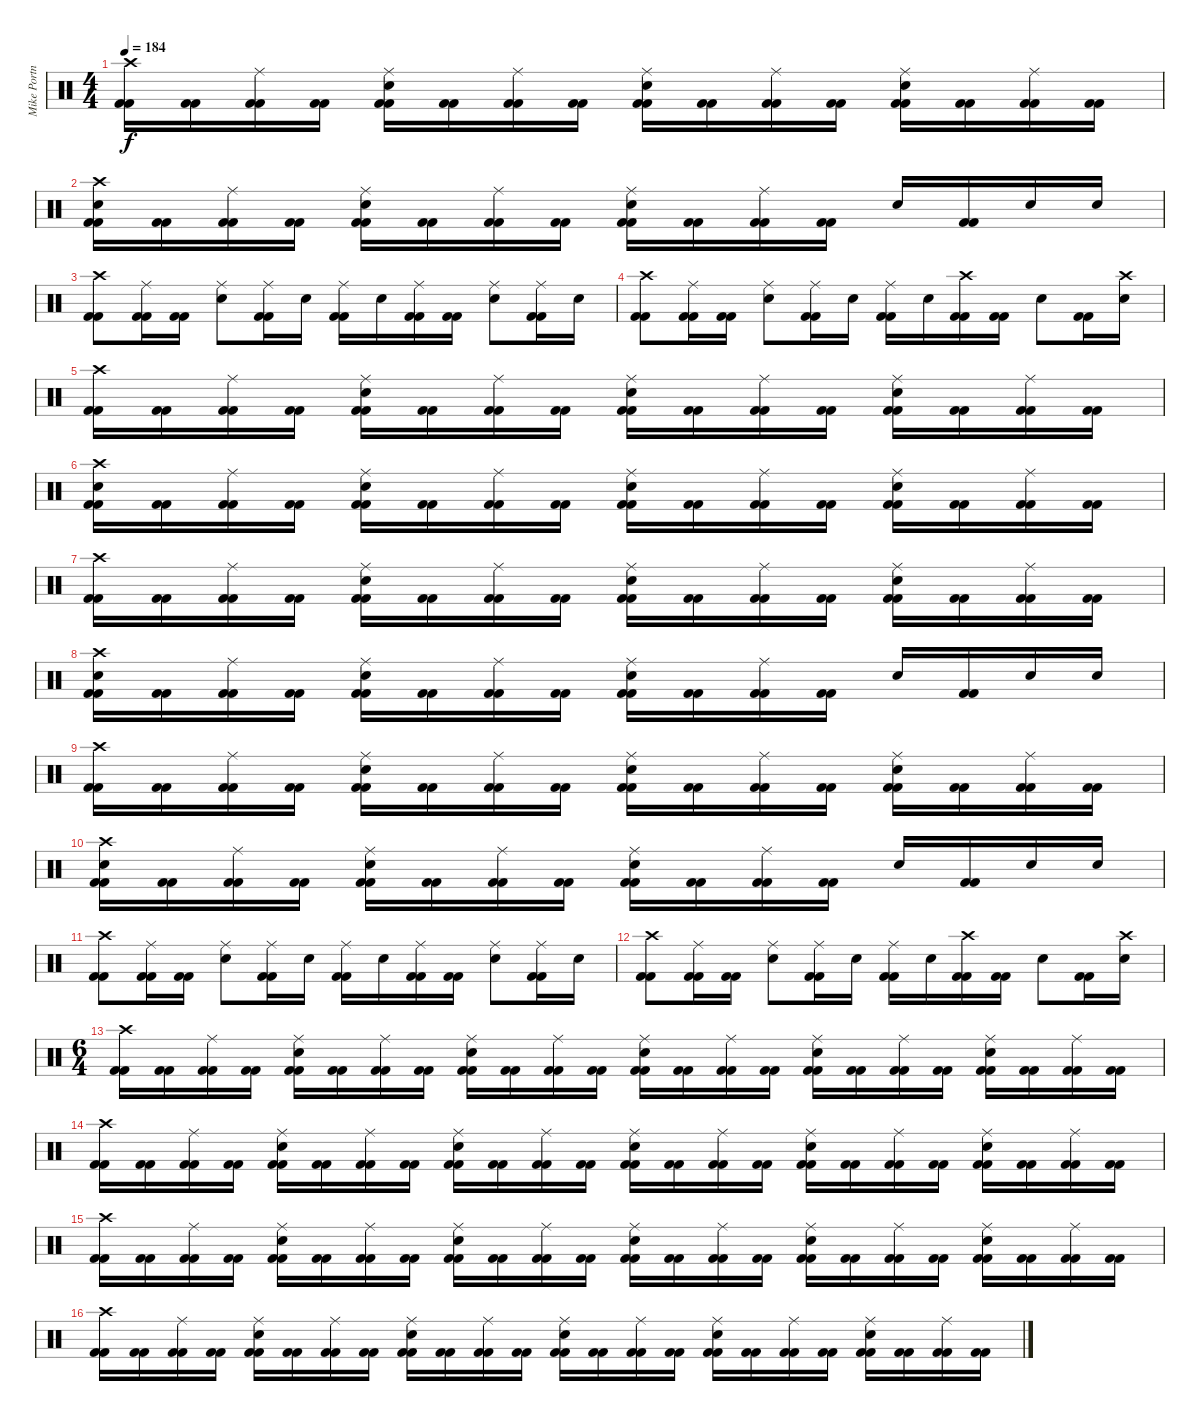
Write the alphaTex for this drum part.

\track ("Mike Portnoy - Drum" "Mike Portn") {instrument percussion}
\staff {score}
\articulation defaults
\ts (4 4)
\tempo 184
\clef neutral
\ks c
("Crash high (hit)" "Kick (hit) 2" "Kick (hit) 2").16{dy f} ("Kick (hit) 2" "Kick (hit) 2").16 ("Ride (middle)" "Kick (hit) 2" "Kick (hit) 2").16 ("Kick (hit) 2" "Kick (hit) 2").16 ("Ride (middle)" "Snare (hit) 2" "Kick (hit) 2" "Kick (hit) 2").16 ("Kick (hit) 2" "Kick (hit) 2").16 ("Ride (middle)" "Kick (hit) 2" "Kick (hit) 2").16 ("Kick (hit) 2" "Kick (hit) 2").16 ("Ride (middle)" "Snare (hit) 2" "Kick (hit) 2" "Kick (hit) 2").16 ("Kick (hit) 2" "Kick (hit) 2").16 ("Ride (middle)" "Kick (hit) 2" "Kick (hit) 2").16 ("Kick (hit) 2" "Kick (hit) 2").16 ("Ride (middle)" "Snare (hit) 2" "Kick (hit) 2" "Kick (hit) 2").16 ("Kick (hit) 2" "Kick (hit) 2").16 ("Ride (middle)" "Kick (hit) 2" "Kick (hit) 2").16 ("Kick (hit) 2" "Kick (hit) 2").16 |
("Crash high (hit)" "Snare (hit) 2" "Kick (hit) 2" "Kick (hit) 2").16 ("Kick (hit) 2" "Kick (hit) 2").16 ("Ride (middle)" "Kick (hit) 2" "Kick (hit) 2").16 ("Kick (hit) 2" "Kick (hit) 2").16 ("Ride (middle)" "Snare (hit) 2" "Kick (hit) 2" "Kick (hit) 2").16 ("Kick (hit) 2" "Kick (hit) 2").16 ("Ride (middle)" "Kick (hit) 2" "Kick (hit) 2").16 ("Kick (hit) 2" "Kick (hit) 2").16 ("Ride (middle)" "Snare (hit) 2" "Kick (hit) 2" "Kick (hit) 2").16 ("Kick (hit) 2" "Kick (hit) 2").16 ("Ride (middle)" "Kick (hit) 2" "Kick (hit) 2").16 ("Kick (hit) 2" "Kick (hit) 2").16 "Snare (hit) 2".16 ("Kick (hit) 2" "Kick (hit) 2").16 "Snare (hit) 2".16 "Snare (hit) 2".16 |
("Crash high (hit)" "Kick (hit) 2" "Kick (hit) 2").8 ("Ride (middle)" "Kick (hit) 2" "Kick (hit) 2").16 ("Kick (hit) 2" "Kick (hit) 2").16 ("Ride (middle)" "Snare (hit) 2").8 ("Ride (middle)" "Kick (hit) 2" "Kick (hit) 2").16 "Snare (hit) 2".16 ("Ride (middle)" "Kick (hit) 2" "Kick (hit) 2").16 "Snare (hit) 2".16 ("Ride (middle)" "Kick (hit) 2" "Kick (hit) 2").16 ("Kick (hit) 2" "Kick (hit) 2").16 ("Ride (middle)" "Snare (hit) 2").8 ("Ride (middle)" "Kick (hit) 2" "Kick (hit) 2").16 "Snare (hit) 2".16 |
("Crash high (hit)" "Kick (hit) 2" "Kick (hit) 2").8 ("Ride (middle)" "Kick (hit) 2" "Kick (hit) 2").16 ("Kick (hit) 2" "Kick (hit) 2").16 ("Ride (middle)" "Snare (hit) 2").8 ("Ride (middle)" "Kick (hit) 2" "Kick (hit) 2").16 "Snare (hit) 2".16 ("Ride (middle)" "Kick (hit) 2" "Kick (hit) 2").16 "Snare (hit) 2".16 ("Crash high (hit)" "Kick (hit) 2" "Kick (hit) 2").16 ("Kick (hit) 2" "Kick (hit) 2").16 "Snare (hit) 2".8 ("Kick (hit) 2" "Kick (hit) 2").16 ("Crash high (hit)" "Snare (hit) 2").16 |
("Crash high (hit)" "Kick (hit) 2" "Kick (hit) 2").16 ("Kick (hit) 2" "Kick (hit) 2").16 ("Ride (middle)" "Kick (hit) 2" "Kick (hit) 2").16 ("Kick (hit) 2" "Kick (hit) 2").16 ("Ride (middle)" "Snare (hit) 2" "Kick (hit) 2" "Kick (hit) 2").16 ("Kick (hit) 2" "Kick (hit) 2").16 ("Ride (middle)" "Kick (hit) 2" "Kick (hit) 2").16 ("Kick (hit) 2" "Kick (hit) 2").16 ("Ride (middle)" "Snare (hit) 2" "Kick (hit) 2" "Kick (hit) 2").16 ("Kick (hit) 2" "Kick (hit) 2").16 ("Ride (middle)" "Kick (hit) 2" "Kick (hit) 2").16 ("Kick (hit) 2" "Kick (hit) 2").16 ("Ride (middle)" "Snare (hit) 2" "Kick (hit) 2" "Kick (hit) 2").16 ("Kick (hit) 2" "Kick (hit) 2").16 ("Ride (middle)" "Kick (hit) 2" "Kick (hit) 2").16 ("Kick (hit) 2" "Kick (hit) 2").16 |
("Crash high (hit)" "Snare (hit) 2" "Kick (hit) 2" "Kick (hit) 2").16 ("Kick (hit) 2" "Kick (hit) 2").16 ("Ride (middle)" "Kick (hit) 2" "Kick (hit) 2").16 ("Kick (hit) 2" "Kick (hit) 2").16 ("Ride (middle)" "Snare (hit) 2" "Kick (hit) 2" "Kick (hit) 2").16 ("Kick (hit) 2" "Kick (hit) 2").16 ("Ride (middle)" "Kick (hit) 2" "Kick (hit) 2").16 ("Kick (hit) 2" "Kick (hit) 2").16 ("Ride (middle)" "Snare (hit) 2" "Kick (hit) 2" "Kick (hit) 2").16 ("Kick (hit) 2" "Kick (hit) 2").16 ("Ride (middle)" "Kick (hit) 2" "Kick (hit) 2").16 ("Kick (hit) 2" "Kick (hit) 2").16 ("Ride (middle)" "Snare (hit) 2" "Kick (hit) 2" "Kick (hit) 2").16 ("Kick (hit) 2" "Kick (hit) 2").16 ("Ride (middle)" "Kick (hit) 2" "Kick (hit) 2").16 ("Kick (hit) 2" "Kick (hit) 2").16 |
("Crash high (hit)" "Kick (hit) 2" "Kick (hit) 2").16 ("Kick (hit) 2" "Kick (hit) 2").16 ("Ride (middle)" "Kick (hit) 2" "Kick (hit) 2").16 ("Kick (hit) 2" "Kick (hit) 2").16 ("Ride (middle)" "Snare (hit) 2" "Kick (hit) 2" "Kick (hit) 2").16 ("Kick (hit) 2" "Kick (hit) 2").16 ("Ride (middle)" "Kick (hit) 2" "Kick (hit) 2").16 ("Kick (hit) 2" "Kick (hit) 2").16 ("Ride (middle)" "Snare (hit) 2" "Kick (hit) 2" "Kick (hit) 2").16 ("Kick (hit) 2" "Kick (hit) 2").16 ("Ride (middle)" "Kick (hit) 2" "Kick (hit) 2").16 ("Kick (hit) 2" "Kick (hit) 2").16 ("Ride (middle)" "Snare (hit) 2" "Kick (hit) 2" "Kick (hit) 2").16 ("Kick (hit) 2" "Kick (hit) 2").16 ("Ride (middle)" "Kick (hit) 2" "Kick (hit) 2").16 ("Kick (hit) 2" "Kick (hit) 2").16 |
("Crash high (hit)" "Snare (hit) 2" "Kick (hit) 2" "Kick (hit) 2").16 ("Kick (hit) 2" "Kick (hit) 2").16 ("Ride (middle)" "Kick (hit) 2" "Kick (hit) 2").16 ("Kick (hit) 2" "Kick (hit) 2").16 ("Ride (middle)" "Snare (hit) 2" "Kick (hit) 2" "Kick (hit) 2").16 ("Kick (hit) 2" "Kick (hit) 2").16 ("Ride (middle)" "Kick (hit) 2" "Kick (hit) 2").16 ("Kick (hit) 2" "Kick (hit) 2").16 ("Ride (middle)" "Snare (hit) 2" "Kick (hit) 2" "Kick (hit) 2").16 ("Kick (hit) 2" "Kick (hit) 2").16 ("Ride (middle)" "Kick (hit) 2" "Kick (hit) 2").16 ("Kick (hit) 2" "Kick (hit) 2").16 "Snare (hit) 2".16 ("Kick (hit) 2" "Kick (hit) 2").16 "Snare (hit) 2".16 "Snare (hit) 2".16 |
("Crash high (hit)" "Kick (hit) 2" "Kick (hit) 2").16 ("Kick (hit) 2" "Kick (hit) 2").16 ("Ride (middle)" "Kick (hit) 2" "Kick (hit) 2").16 ("Kick (hit) 2" "Kick (hit) 2").16 ("Ride (middle)" "Snare (hit) 2" "Kick (hit) 2" "Kick (hit) 2").16 ("Kick (hit) 2" "Kick (hit) 2").16 ("Ride (middle)" "Kick (hit) 2" "Kick (hit) 2").16 ("Kick (hit) 2" "Kick (hit) 2").16 ("Ride (middle)" "Snare (hit) 2" "Kick (hit) 2" "Kick (hit) 2").16 ("Kick (hit) 2" "Kick (hit) 2").16 ("Ride (middle)" "Kick (hit) 2" "Kick (hit) 2").16 ("Kick (hit) 2" "Kick (hit) 2").16 ("Ride (middle)" "Snare (hit) 2" "Kick (hit) 2" "Kick (hit) 2").16 ("Kick (hit) 2" "Kick (hit) 2").16 ("Ride (middle)" "Kick (hit) 2" "Kick (hit) 2").16 ("Kick (hit) 2" "Kick (hit) 2").16 |
("Crash high (hit)" "Snare (hit) 2" "Kick (hit) 2" "Kick (hit) 2").16 ("Kick (hit) 2" "Kick (hit) 2").16 ("Ride (middle)" "Kick (hit) 2" "Kick (hit) 2").16 ("Kick (hit) 2" "Kick (hit) 2").16 ("Ride (middle)" "Snare (hit) 2" "Kick (hit) 2" "Kick (hit) 2").16 ("Kick (hit) 2" "Kick (hit) 2").16 ("Ride (middle)" "Kick (hit) 2" "Kick (hit) 2").16 ("Kick (hit) 2" "Kick (hit) 2").16 ("Ride (middle)" "Snare (hit) 2" "Kick (hit) 2" "Kick (hit) 2").16 ("Kick (hit) 2" "Kick (hit) 2").16 ("Ride (middle)" "Kick (hit) 2" "Kick (hit) 2").16 ("Kick (hit) 2" "Kick (hit) 2").16 "Snare (hit) 2".16 ("Kick (hit) 2" "Kick (hit) 2").16 "Snare (hit) 2".16 "Snare (hit) 2".16 |
("Crash high (hit)" "Kick (hit) 2" "Kick (hit) 2").8 ("Ride (middle)" "Kick (hit) 2" "Kick (hit) 2").16 ("Kick (hit) 2" "Kick (hit) 2").16 ("Ride (middle)" "Snare (hit) 2").8 ("Ride (middle)" "Kick (hit) 2" "Kick (hit) 2").16 "Snare (hit) 2".16 ("Ride (middle)" "Kick (hit) 2" "Kick (hit) 2").16 "Snare (hit) 2".16 ("Ride (middle)" "Kick (hit) 2" "Kick (hit) 2").16 ("Kick (hit) 2" "Kick (hit) 2").16 ("Ride (middle)" "Snare (hit) 2").8 ("Ride (middle)" "Kick (hit) 2" "Kick (hit) 2").16 "Snare (hit) 2".16 |
("Crash high (hit)" "Kick (hit) 2" "Kick (hit) 2").8 ("Ride (middle)" "Kick (hit) 2" "Kick (hit) 2").16 ("Kick (hit) 2" "Kick (hit) 2").16 ("Ride (middle)" "Snare (hit) 2").8 ("Ride (middle)" "Kick (hit) 2" "Kick (hit) 2").16 "Snare (hit) 2".16 ("Ride (middle)" "Kick (hit) 2" "Kick (hit) 2").16 "Snare (hit) 2".16 ("Crash high (hit)" "Kick (hit) 2" "Kick (hit) 2").16 ("Kick (hit) 2" "Kick (hit) 2").16 "Snare (hit) 2".8 ("Kick (hit) 2" "Kick (hit) 2").16 ("Crash high (hit)" "Snare (hit) 2").16 |
\ts (6 4)
("Crash high (hit)" "Kick (hit) 2" "Kick (hit) 2").16 ("Kick (hit) 2" "Kick (hit) 2").16 ("Ride (middle)" "Kick (hit) 2" "Kick (hit) 2").16 ("Kick (hit) 2" "Kick (hit) 2").16 ("Ride (middle)" "Snare (hit) 2" "Kick (hit) 2" "Kick (hit) 2").16 ("Kick (hit) 2" "Kick (hit) 2").16 ("Ride (middle)" "Kick (hit) 2" "Kick (hit) 2").16 ("Kick (hit) 2" "Kick (hit) 2").16 ("Ride (middle)" "Snare (hit) 2" "Kick (hit) 2" "Kick (hit) 2").16 ("Kick (hit) 2" "Kick (hit) 2").16 ("Ride (middle)" "Kick (hit) 2" "Kick (hit) 2").16 ("Kick (hit) 2" "Kick (hit) 2").16 ("Ride (middle)" "Snare (hit) 2" "Kick (hit) 2" "Kick (hit) 2").16 ("Kick (hit) 2" "Kick (hit) 2").16 ("Ride (middle)" "Kick (hit) 2" "Kick (hit) 2").16 ("Kick (hit) 2" "Kick (hit) 2").16 ("Ride (middle)" "Snare (hit) 2" "Kick (hit) 2" "Kick (hit) 2").16 ("Kick (hit) 2" "Kick (hit) 2").16 ("Ride (middle)" "Kick (hit) 2" "Kick (hit) 2").16 ("Kick (hit) 2" "Kick (hit) 2").16 ("Ride (middle)" "Snare (hit) 2" "Kick (hit) 2" "Kick (hit) 2").16 ("Kick (hit) 2" "Kick (hit) 2").16 ("Ride (middle)" "Kick (hit) 2" "Kick (hit) 2").16 ("Kick (hit) 2" "Kick (hit) 2").16 |
("Crash high (hit)" "Kick (hit) 2" "Kick (hit) 2").16 ("Kick (hit) 2" "Kick (hit) 2").16 ("Ride (middle)" "Kick (hit) 2" "Kick (hit) 2").16 ("Kick (hit) 2" "Kick (hit) 2").16 ("Ride (middle)" "Snare (hit) 2" "Kick (hit) 2" "Kick (hit) 2").16 ("Kick (hit) 2" "Kick (hit) 2").16 ("Ride (middle)" "Kick (hit) 2" "Kick (hit) 2").16 ("Kick (hit) 2" "Kick (hit) 2").16 ("Ride (middle)" "Snare (hit) 2" "Kick (hit) 2" "Kick (hit) 2").16 ("Kick (hit) 2" "Kick (hit) 2").16 ("Ride (middle)" "Kick (hit) 2" "Kick (hit) 2").16 ("Kick (hit) 2" "Kick (hit) 2").16 ("Ride (middle)" "Snare (hit) 2" "Kick (hit) 2" "Kick (hit) 2").16 ("Kick (hit) 2" "Kick (hit) 2").16 ("Ride (middle)" "Kick (hit) 2" "Kick (hit) 2").16 ("Kick (hit) 2" "Kick (hit) 2").16 ("Ride (middle)" "Snare (hit) 2" "Kick (hit) 2" "Kick (hit) 2").16 ("Kick (hit) 2" "Kick (hit) 2").16 ("Ride (middle)" "Kick (hit) 2" "Kick (hit) 2").16 ("Kick (hit) 2" "Kick (hit) 2").16 ("Ride (middle)" "Snare (hit) 2" "Kick (hit) 2" "Kick (hit) 2").16 ("Kick (hit) 2" "Kick (hit) 2").16 ("Ride (middle)" "Kick (hit) 2" "Kick (hit) 2").16 ("Kick (hit) 2" "Kick (hit) 2").16 |
("Crash high (hit)" "Kick (hit) 2" "Kick (hit) 2").16 ("Kick (hit) 2" "Kick (hit) 2").16 ("Ride (middle)" "Kick (hit) 2" "Kick (hit) 2").16 ("Kick (hit) 2" "Kick (hit) 2").16 ("Ride (middle)" "Snare (hit) 2" "Kick (hit) 2" "Kick (hit) 2").16 ("Kick (hit) 2" "Kick (hit) 2").16 ("Ride (middle)" "Kick (hit) 2" "Kick (hit) 2").16 ("Kick (hit) 2" "Kick (hit) 2").16 ("Ride (middle)" "Snare (hit) 2" "Kick (hit) 2" "Kick (hit) 2").16 ("Kick (hit) 2" "Kick (hit) 2").16 ("Ride (middle)" "Kick (hit) 2" "Kick (hit) 2").16 ("Kick (hit) 2" "Kick (hit) 2").16 ("Ride (middle)" "Snare (hit) 2" "Kick (hit) 2" "Kick (hit) 2").16 ("Kick (hit) 2" "Kick (hit) 2").16 ("Ride (middle)" "Kick (hit) 2" "Kick (hit) 2").16 ("Kick (hit) 2" "Kick (hit) 2").16 ("Ride (middle)" "Snare (hit) 2" "Kick (hit) 2" "Kick (hit) 2").16 ("Kick (hit) 2" "Kick (hit) 2").16 ("Ride (middle)" "Kick (hit) 2" "Kick (hit) 2").16 ("Kick (hit) 2" "Kick (hit) 2").16 ("Ride (middle)" "Snare (hit) 2" "Kick (hit) 2" "Kick (hit) 2").16 ("Kick (hit) 2" "Kick (hit) 2").16 ("Ride (middle)" "Kick (hit) 2" "Kick (hit) 2").16 ("Kick (hit) 2" "Kick (hit) 2").16 |
("Crash high (hit)" "Kick (hit) 2" "Kick (hit) 2").16 ("Kick (hit) 2" "Kick (hit) 2").16 ("Ride (middle)" "Kick (hit) 2" "Kick (hit) 2").16 ("Kick (hit) 2" "Kick (hit) 2").16 ("Ride (middle)" "Snare (hit) 2" "Kick (hit) 2" "Kick (hit) 2").16 ("Kick (hit) 2" "Kick (hit) 2").16 ("Ride (middle)" "Kick (hit) 2" "Kick (hit) 2").16 ("Kick (hit) 2" "Kick (hit) 2").16 ("Ride (middle)" "Snare (hit) 2" "Kick (hit) 2" "Kick (hit) 2").16 ("Kick (hit) 2" "Kick (hit) 2").16 ("Ride (middle)" "Kick (hit) 2" "Kick (hit) 2").16 ("Kick (hit) 2" "Kick (hit) 2").16 ("Ride (middle)" "Snare (hit) 2" "Kick (hit) 2" "Kick (hit) 2").16 ("Kick (hit) 2" "Kick (hit) 2").16 ("Ride (middle)" "Kick (hit) 2" "Kick (hit) 2").16 ("Kick (hit) 2" "Kick (hit) 2").16 ("Ride (middle)" "Snare (hit) 2" "Kick (hit) 2" "Kick (hit) 2").16 ("Kick (hit) 2" "Kick (hit) 2").16 ("Ride (middle)" "Kick (hit) 2" "Kick (hit) 2").16 ("Kick (hit) 2" "Kick (hit) 2").16 ("Ride (middle)" "Snare (hit) 2" "Kick (hit) 2" "Kick (hit) 2").16 ("Kick (hit) 2" "Kick (hit) 2").16 ("Ride (middle)" "Kick (hit) 2" "Kick (hit) 2").16 ("Kick (hit) 2" "Kick (hit) 2").16
